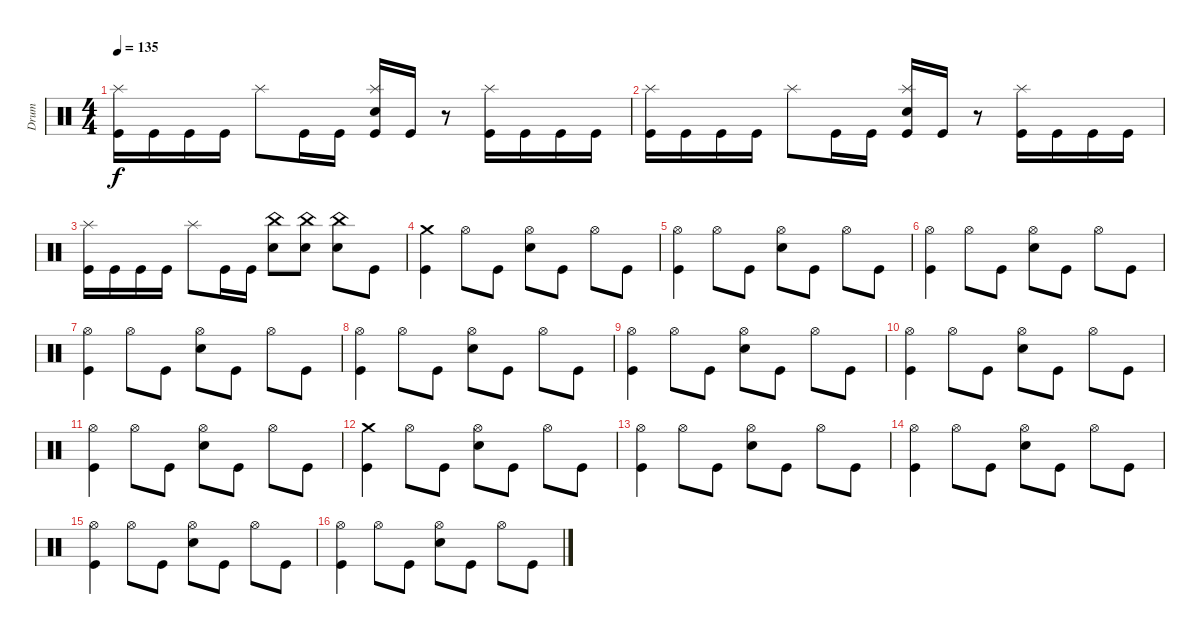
\track ("Drum" "Drum") {instrument percussion}
\staff {score}
\articulation defaults
\ts (4 4)
\tempo 135
\clef neutral
\ks c
("Kick (hit)" "Splash (hit)").16{dy f} "Kick (hit)".16 "Kick (hit)".16 "Kick (hit)".16 "Splash (hit)".8 "Kick (hit)".16 "Kick (hit)".16 ("Kick (hit)" "Electric Snare (hit)" "Splash (hit)").16 "Kick (hit)".16 r.8 ("Kick (hit)" "Splash (hit)").16 "Kick (hit)".16 "Kick (hit)".16 "Kick (hit)".16 |
("Kick (hit)" "Splash (hit)").16 "Kick (hit)".16 "Kick (hit)".16 "Kick (hit)".16 "Splash (hit)".8 "Kick (hit)".16 "Kick (hit)".16 ("Kick (hit)" "Electric Snare (hit)" "Splash (hit)").16 "Kick (hit)".16 r.8 ("Kick (hit)" "Splash (hit)").16 "Kick (hit)".16 "Kick (hit)".16 "Kick (hit)".16 |
("Kick (hit)" "Splash (hit)").16 "Kick (hit)".16 "Kick (hit)".16 "Kick (hit)".16 "Splash (hit)".8 "Kick (hit)".16 "Kick (hit)".16 ("Electric Snare (hit)" "China (hit)").8 ("Electric Snare (hit)" "China (hit)").8 ("Electric Snare (hit)" "China (hit)").8 "Kick (hit)".8 |
("Kick (hit)" "Crash medium (hit)").4 "Hi-Hat (open)".8 "Kick (hit)".8 ("Electric Snare (hit)" "Hi-Hat (open)").8 "Kick (hit)".8 "Hi-Hat (open)".8 "Kick (hit)".8 |
("Kick (hit)" "Hi-Hat (open)").4 "Hi-Hat (open)".8 "Kick (hit)".8 ("Electric Snare (hit)" "Hi-Hat (open)").8 "Kick (hit)".8 "Hi-Hat (open)".8 "Kick (hit)".8 |
("Kick (hit)" "Hi-Hat (open)").4 "Hi-Hat (open)".8 "Kick (hit)".8 ("Electric Snare (hit)" "Hi-Hat (open)").8 "Kick (hit)".8 "Hi-Hat (open)".8 "Kick (hit)".8 |
("Kick (hit)" "Hi-Hat (open)").4 "Hi-Hat (open)".8 "Kick (hit)".8 ("Electric Snare (hit)" "Hi-Hat (open)").8 "Kick (hit)".8 "Hi-Hat (open)".8 "Kick (hit)".8 |
("Kick (hit)" "Hi-Hat (open)").4 "Hi-Hat (open)".8 "Kick (hit)".8 ("Electric Snare (hit)" "Hi-Hat (open)").8 "Kick (hit)".8 "Hi-Hat (open)".8 "Kick (hit)".8 |
("Kick (hit)" "Hi-Hat (open)").4 "Hi-Hat (open)".8 "Kick (hit)".8 ("Electric Snare (hit)" "Hi-Hat (open)").8 "Kick (hit)".8 "Hi-Hat (open)".8 "Kick (hit)".8 |
("Kick (hit)" "Hi-Hat (open)").4 "Hi-Hat (open)".8 "Kick (hit)".8 ("Electric Snare (hit)" "Hi-Hat (open)").8 "Kick (hit)".8 "Hi-Hat (open)".8 "Kick (hit)".8 |
("Kick (hit)" "Hi-Hat (open)").4 "Hi-Hat (open)".8 "Kick (hit)".8 ("Electric Snare (hit)" "Hi-Hat (open)").8 "Kick (hit)".8 "Hi-Hat (open)".8 "Kick (hit)".8 |
("Kick (hit)" "Crash medium (hit)").4 "Hi-Hat (open)".8 "Kick (hit)".8 ("Electric Snare (hit)" "Hi-Hat (open)").8 "Kick (hit)".8 "Hi-Hat (open)".8 "Kick (hit)".8 |
("Kick (hit)" "Hi-Hat (open)").4 "Hi-Hat (open)".8 "Kick (hit)".8 ("Electric Snare (hit)" "Hi-Hat (open)").8 "Kick (hit)".8 "Hi-Hat (open)".8 "Kick (hit)".8 |
("Kick (hit)" "Hi-Hat (open)").4 "Hi-Hat (open)".8 "Kick (hit)".8 ("Electric Snare (hit)" "Hi-Hat (open)").8 "Kick (hit)".8 "Hi-Hat (open)".8 "Kick (hit)".8 |
("Kick (hit)" "Hi-Hat (open)").4 "Hi-Hat (open)".8 "Kick (hit)".8 ("Electric Snare (hit)" "Hi-Hat (open)").8 "Kick (hit)".8 "Hi-Hat (open)".8 "Kick (hit)".8 |
("Kick (hit)" "Hi-Hat (open)").4 "Hi-Hat (open)".8 "Kick (hit)".8 ("Electric Snare (hit)" "Hi-Hat (open)").8 "Kick (hit)".8 "Hi-Hat (open)".8 "Kick (hit)".8
